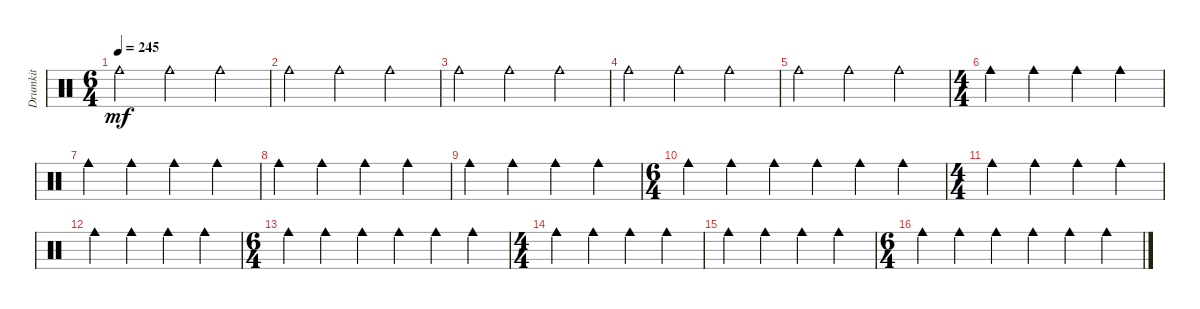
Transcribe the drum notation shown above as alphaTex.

\track ("Drumkit" "Drumkit") {instrument percussion}
\staff {score}
\articulation defaults
\ts (6 4)
\tempo 245
\clef neutral
\ks c "Cowbell medium (hit)".2{dy mf} "Cowbell medium (hit)".2 "Cowbell medium (hit)".2
|
"Cowbell medium (hit)".2 "Cowbell medium (hit)".2 "Cowbell medium (hit)".2 |
"Cowbell medium (hit)".2 "Cowbell medium (hit)".2 "Cowbell medium (hit)".2 |
"Cowbell medium (hit)".2 "Cowbell medium (hit)".2 "Cowbell medium (hit)".2 |
"Cowbell medium (hit)".2 "Cowbell medium (hit)".2 "Cowbell medium (hit)".2 |
\ts (4 4)
"Cowbell medium (hit)".4 "Cowbell medium (hit)".4 "Cowbell medium (hit)".4 "Cowbell medium (hit)".4 |
"Cowbell medium (hit)".4 "Cowbell medium (hit)".4 "Cowbell medium (hit)".4 "Cowbell medium (hit)".4 |
"Cowbell medium (hit)".4 "Cowbell medium (hit)".4 "Cowbell medium (hit)".4 "Cowbell medium (hit)".4 |
"Cowbell medium (hit)".4 "Cowbell medium (hit)".4 "Cowbell medium (hit)".4 "Cowbell medium (hit)".4 |
\ts (6 4)
"Cowbell medium (hit)".4 "Cowbell medium (hit)".4 "Cowbell medium (hit)".4 "Cowbell medium (hit)".4 "Cowbell medium (hit)".4 "Cowbell medium (hit)".4 |
\ts (4 4)
"Cowbell medium (hit)".4 "Cowbell medium (hit)".4 "Cowbell medium (hit)".4 "Cowbell medium (hit)".4 |
"Cowbell medium (hit)".4 "Cowbell medium (hit)".4 "Cowbell medium (hit)".4 "Cowbell medium (hit)".4 |
\ts (6 4)
"Cowbell medium (hit)".4 "Cowbell medium (hit)".4 "Cowbell medium (hit)".4 "Cowbell medium (hit)".4 "Cowbell medium (hit)".4 "Cowbell medium (hit)".4 |
\ts (4 4)
"Cowbell medium (hit)".4 "Cowbell medium (hit)".4 "Cowbell medium (hit)".4 "Cowbell medium (hit)".4 |
"Cowbell medium (hit)".4 "Cowbell medium (hit)".4 "Cowbell medium (hit)".4 "Cowbell medium (hit)".4 |
\ts (6 4)
"Cowbell medium (hit)".4 "Cowbell medium (hit)".4 "Cowbell medium (hit)".4 "Cowbell medium (hit)".4 "Cowbell medium (hit)".4 "Cowbell medium (hit)".4
